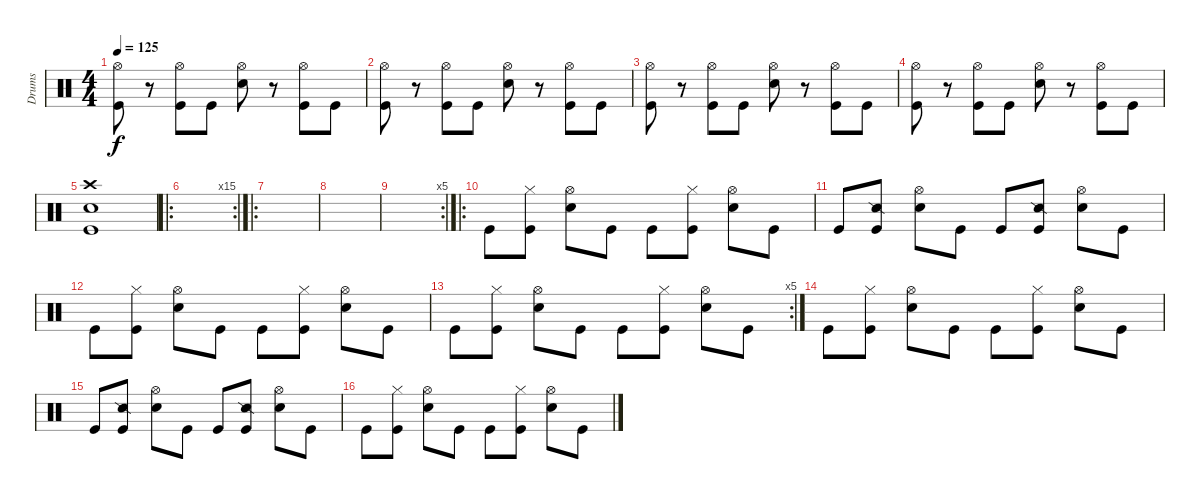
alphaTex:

\track ("Drums" "Drums") {instrument percussion}
\staff {score}
\articulation defaults
\ts (4 4)
\tempo 125
\clef neutral
\ks c
("Hi-Hat (open)" "Kick (hit)").8{dy f} r.8 ("Hi-Hat (open)" "Kick (hit)").8 "Kick (hit)".8 ("Hi-Hat (open)" "Snare (hit) 2").8 r.8 ("Hi-Hat (open)" "Kick (hit)").8 "Kick (hit)".8 |
("Hi-Hat (open)" "Kick (hit)").8 r.8 ("Hi-Hat (open)" "Kick (hit)").8 "Kick (hit)".8 ("Hi-Hat (open)" "Snare (hit) 2").8 r.8 ("Hi-Hat (open)" "Kick (hit)").8 "Kick (hit)".8 |
("Hi-Hat (open)" "Kick (hit)").8 r.8 ("Hi-Hat (open)" "Kick (hit)").8 "Kick (hit)".8 ("Hi-Hat (open)" "Snare (hit) 2").8 r.8 ("Hi-Hat (open)" "Kick (hit)").8 "Kick (hit)".8 |
("Hi-Hat (open)" "Kick (hit)").8 r.8 ("Hi-Hat (open)" "Kick (hit)").8 "Kick (hit)".8 ("Hi-Hat (open)" "Snare (hit) 2").8 r.8 ("Hi-Hat (open)" "Kick (hit)").8 "Kick (hit)".8 |
("Crash high (hit)" "Snare (hit) 2" "Kick (hit)").1 |
\ro
\rc 15
|
\ro
|
|
\rc 5
|
\ro "Kick (hit)".8
("Hi-Hat (closed)" "Kick (hit)").8 ("Hi-Hat (open)" "Snare (hit) 2").8 "Kick (hit)".8 "Kick (hit)".8 ("Hi-Hat (closed)" "Kick (hit)").8 ("Hi-Hat (open)" "Snare (hit) 2").8 "Kick (hit)".8 |
"Kick (hit)".8 ("Snare (side stick) 2" "Kick (hit)").8 ("Hi-Hat (open)" "Snare (hit) 2").8 "Kick (hit)".8 "Kick (hit)".8 ("Snare (side stick) 2" "Kick (hit)").8 ("Hi-Hat (open)" "Snare (hit) 2").8 "Kick (hit)".8 |
"Kick (hit)".8 ("Hi-Hat (closed)" "Kick (hit)").8 ("Hi-Hat (open)" "Snare (hit) 2").8 "Kick (hit)".8 "Kick (hit)".8 ("Hi-Hat (closed)" "Kick (hit)").8 ("Hi-Hat (open)" "Snare (hit) 2").8 "Kick (hit)".8 |
\rc 5 "Kick (hit)".8
("Hi-Hat (closed)" "Kick (hit)").8 ("Hi-Hat (open)" "Snare (hit) 2").8 "Kick (hit)".8 "Kick (hit)".8 ("Hi-Hat (closed)" "Kick (hit)").8 ("Hi-Hat (open)" "Snare (hit) 2").8 "Kick (hit)".8 |
"Kick (hit)".8 ("Hi-Hat (closed)" "Kick (hit)").8 ("Hi-Hat (open)" "Snare (hit) 2").8 "Kick (hit)".8 "Kick (hit)".8 ("Hi-Hat (closed)" "Kick (hit)").8 ("Hi-Hat (open)" "Snare (hit) 2").8 "Kick (hit)".8 |
"Kick (hit)".8 ("Snare (side stick) 2" "Kick (hit)").8 ("Hi-Hat (open)" "Snare (hit) 2").8 "Kick (hit)".8 "Kick (hit)".8 ("Snare (side stick) 2" "Kick (hit)").8 ("Hi-Hat (open)" "Snare (hit) 2").8 "Kick (hit)".8 |
"Kick (hit)".8 ("Hi-Hat (closed)" "Kick (hit)").8 ("Hi-Hat (open)" "Snare (hit) 2").8 "Kick (hit)".8 "Kick (hit)".8 ("Hi-Hat (closed)" "Kick (hit)").8 ("Hi-Hat (open)" "Snare (hit) 2").8 "Kick (hit)".8
